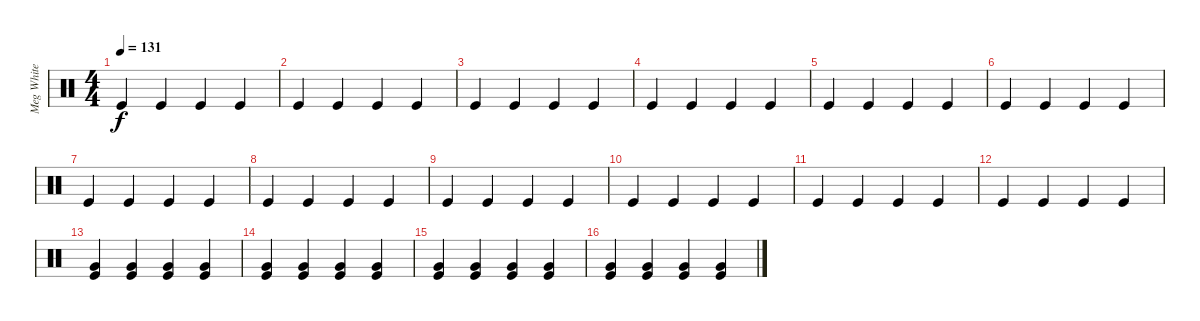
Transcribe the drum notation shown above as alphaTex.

\track ("Meg White" "Meg White") {instrument percussion}
\staff {score}
\articulation defaults
\ts (4 4)
\tempo 131
\clef neutral
\ks c "Kick (hit)".4{dy f} "Kick (hit)".4 "Kick (hit)".4 "Kick (hit)".4
|
"Kick (hit)".4 "Kick (hit)".4 "Kick (hit)".4 "Kick (hit)".4 |
"Kick (hit)".4 "Kick (hit)".4 "Kick (hit)".4 "Kick (hit)".4 |
"Kick (hit)".4 "Kick (hit)".4 "Kick (hit)".4 "Kick (hit)".4 |
"Kick (hit)".4 "Kick (hit)".4 "Kick (hit)".4 "Kick (hit)".4 |
"Kick (hit)".4 "Kick (hit)".4 "Kick (hit)".4 "Kick (hit)".4 |
"Kick (hit)".4 "Kick (hit)".4 "Kick (hit)".4 "Kick (hit)".4 |
"Kick (hit)".4 "Kick (hit)".4 "Kick (hit)".4 "Kick (hit)".4 |
"Kick (hit)".4 "Kick (hit)".4 "Kick (hit)".4 "Kick (hit)".4 |
"Kick (hit)".4 "Kick (hit)".4 "Kick (hit)".4 "Kick (hit)".4 |
"Kick (hit)".4 "Kick (hit)".4 "Kick (hit)".4 "Kick (hit)".4 |
"Kick (hit)".4 "Kick (hit)".4 "Kick (hit)".4 "Kick (hit)".4 |
("Very Low Tom (hit)" "Kick (hit)").4 ("Very Low Tom (hit)" "Kick (hit)").4 ("Very Low Tom (hit)" "Kick (hit)").4 ("Very Low Tom (hit)" "Kick (hit)").4 |
("Very Low Tom (hit)" "Kick (hit)").4 ("Very Low Tom (hit)" "Kick (hit)").4 ("Very Low Tom (hit)" "Kick (hit)").4 ("Very Low Tom (hit)" "Kick (hit)").4 |
("Very Low Tom (hit)" "Kick (hit)").4 ("Very Low Tom (hit)" "Kick (hit)").4 ("Very Low Tom (hit)" "Kick (hit)").4 ("Very Low Tom (hit)" "Kick (hit)").4 |
("Very Low Tom (hit)" "Kick (hit)").4 ("Very Low Tom (hit)" "Kick (hit)").4 ("Very Low Tom (hit)" "Kick (hit)").4 ("Very Low Tom (hit)" "Kick (hit)").4
